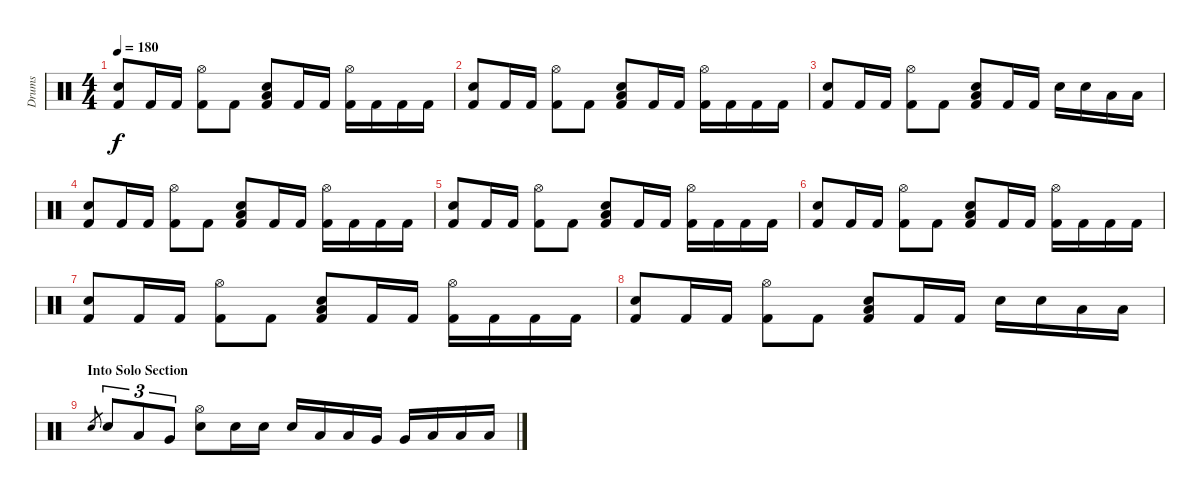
\track ("Drums" "Drums") {instrument percussion}
\staff {score}
\articulation defaults
\ts (4 4)
\tempo 180
\clef neutral
\ks c
("Kick (hit) 2" "Electric Snare (hit)").8{dy f} "Kick (hit) 2".16 "Kick (hit) 2".16 ("Kick (hit) 2" "Hi-Hat (open)").8 "Kick (hit) 2".8 ("Kick (hit) 2" "Low Tom (hit)" "Electric Snare (hit)").8 "Kick (hit) 2".16 "Kick (hit) 2".16 ("Kick (hit) 2" "Hi-Hat (open)").16 "Kick (hit) 2".16 "Kick (hit) 2".16 "Kick (hit) 2".16 |
("Kick (hit) 2" "Electric Snare (hit)").8 "Kick (hit) 2".16 "Kick (hit) 2".16 ("Kick (hit) 2" "Hi-Hat (open)").8 "Kick (hit) 2".8 ("Kick (hit) 2" "Low Tom (hit)" "Electric Snare (hit)").8 "Kick (hit) 2".16 "Kick (hit) 2".16 ("Kick (hit) 2" "Hi-Hat (open)").16 "Kick (hit) 2".16 "Kick (hit) 2".16 "Kick (hit) 2".16 |
("Kick (hit) 2" "Electric Snare (hit)").8 "Kick (hit) 2".16 "Kick (hit) 2".16 ("Kick (hit) 2" "Hi-Hat (open)").8 "Kick (hit) 2".8 ("Kick (hit) 2" "Low Tom (hit)" "Electric Snare (hit)").8 "Kick (hit) 2".16 "Kick (hit) 2".16 "Electric Snare (hit)".16 "Electric Snare (hit)".16 "Low Tom (hit)".16 "Low Tom (hit)".16 |
("Kick (hit) 2" "Electric Snare (hit)").8 "Kick (hit) 2".16 "Kick (hit) 2".16 ("Kick (hit) 2" "Hi-Hat (open)").8 "Kick (hit) 2".8 ("Kick (hit) 2" "Low Tom (hit)" "Electric Snare (hit)").8 "Kick (hit) 2".16 "Kick (hit) 2".16 ("Kick (hit) 2" "Hi-Hat (open)").16 "Kick (hit) 2".16 "Kick (hit) 2".16 "Kick (hit) 2".16 |
("Kick (hit) 2" "Electric Snare (hit)").8 "Kick (hit) 2".16 "Kick (hit) 2".16 ("Kick (hit) 2" "Hi-Hat (open)").8 "Kick (hit) 2".8 ("Kick (hit) 2" "Low Tom (hit)" "Electric Snare (hit)").8 "Kick (hit) 2".16 "Kick (hit) 2".16 ("Kick (hit) 2" "Hi-Hat (open)").16 "Kick (hit) 2".16 "Kick (hit) 2".16 "Kick (hit) 2".16 |
("Kick (hit) 2" "Electric Snare (hit)").8 "Kick (hit) 2".16 "Kick (hit) 2".16 ("Kick (hit) 2" "Hi-Hat (open)").8 "Kick (hit) 2".8 ("Kick (hit) 2" "Low Tom (hit)" "Electric Snare (hit)").8 "Kick (hit) 2".16 "Kick (hit) 2".16 ("Kick (hit) 2" "Hi-Hat (open)").16 "Kick (hit) 2".16 "Kick (hit) 2".16 "Kick (hit) 2".16 |
("Kick (hit) 2" "Electric Snare (hit)").8 "Kick (hit) 2".16 "Kick (hit) 2".16 ("Kick (hit) 2" "Hi-Hat (open)").8 "Kick (hit) 2".8 ("Kick (hit) 2" "Low Tom (hit)" "Electric Snare (hit)").8 "Kick (hit) 2".16 "Kick (hit) 2".16 ("Kick (hit) 2" "Hi-Hat (open)").16 "Kick (hit) 2".16 "Kick (hit) 2".16 "Kick (hit) 2".16 |
("Kick (hit) 2" "Electric Snare (hit)").8 "Kick (hit) 2".16 "Kick (hit) 2".16 ("Kick (hit) 2" "Hi-Hat (open)").8 "Kick (hit) 2".8 ("Kick (hit) 2" "Low Tom (hit)" "Electric Snare (hit)").8 "Kick (hit) 2".16 "Kick (hit) 2".16 "Electric Snare (hit)".16 "Electric Snare (hit)".16 "Low Tom (hit)".16 "Low Tom (hit)".16 |
\section ("" "Into Solo Section")
"Electric Snare (hit)".8{gr} "Electric Snare (hit)".8{tu (3 2)} "Low Tom (hit)".8{tu (3 2)} "Very Low Tom (hit)".8{tu (3 2)} ("Electric Snare (hit)" "Hi-Hat (open)").8 "Electric Snare (hit)".16 "Electric Snare (hit)".16 "Electric Snare (hit)".16 "Low Tom (hit)".16 "Low Tom (hit)".16 "Very Low Tom (hit)".16 "Very Low Tom (hit)".16 "Low Floor Tom (hit)".16 "Low Floor Tom (hit)".16 "Low Floor Tom (hit)".16
